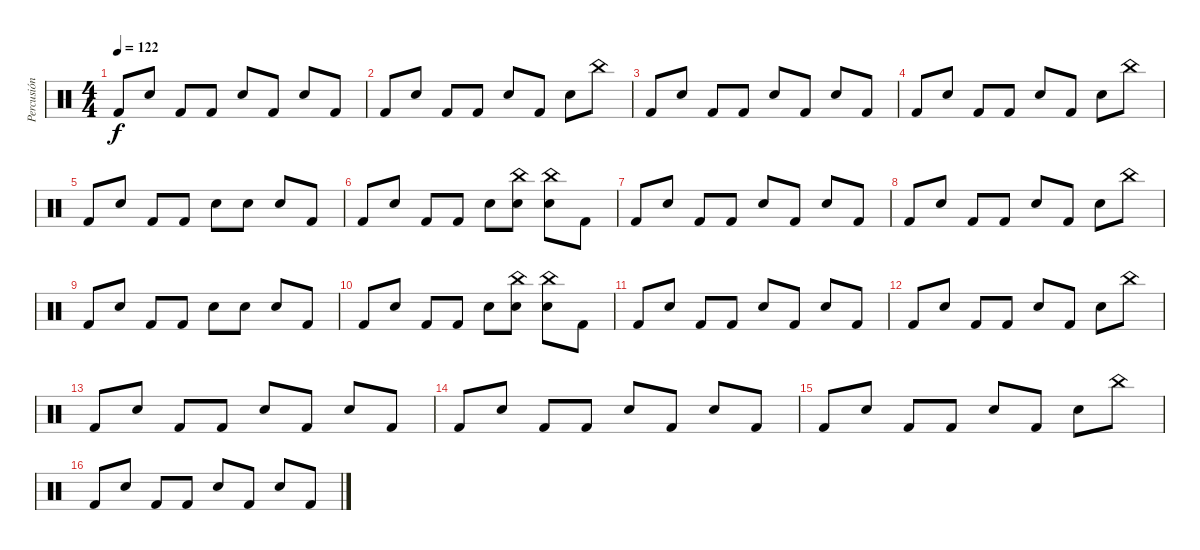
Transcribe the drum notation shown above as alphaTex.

\track ("Percusión" "Percusión") {instrument percussion}
\staff {score}
\articulation defaults
\ts (4 4)
\tempo 122
\clef neutral
\ks c "Kick (hit) 2".8{dy f} "Electric Snare (hit)".8 "Kick (hit) 2".8 "Kick (hit) 2".8 "Electric Snare (hit)".8 "Kick (hit) 2".8 "Electric Snare (hit)".8 "Kick (hit) 2".8
|
"Kick (hit) 2".8 "Electric Snare (hit)".8 "Kick (hit) 2".8 "Kick (hit) 2".8 "Electric Snare (hit)".8 "Kick (hit) 2".8 "Electric Snare (hit)".8 "China (hit)".8 |
"Kick (hit) 2".8 "Electric Snare (hit)".8 "Kick (hit) 2".8 "Kick (hit) 2".8 "Electric Snare (hit)".8 "Kick (hit) 2".8 "Electric Snare (hit)".8 "Kick (hit) 2".8 |
"Kick (hit) 2".8 "Electric Snare (hit)".8 "Kick (hit) 2".8 "Kick (hit) 2".8 "Electric Snare (hit)".8 "Kick (hit) 2".8 "Electric Snare (hit)".8 "China (hit)".8 |
"Kick (hit) 2".8 "Electric Snare (hit)".8 "Kick (hit) 2".8 "Kick (hit) 2".8 "Electric Snare (hit)".8 "Electric Snare (hit)".8 "Electric Snare (hit)".8 "Kick (hit) 2".8 |
"Kick (hit) 2".8 "Electric Snare (hit)".8 "Kick (hit) 2".8 "Kick (hit) 2".8 "Electric Snare (hit)".8 ("China (hit)" "Electric Snare (hit)").8 ("China (hit)" "Electric Snare (hit)").8 "Kick (hit) 2".8 |
"Kick (hit) 2".8 "Electric Snare (hit)".8 "Kick (hit) 2".8 "Kick (hit) 2".8 "Electric Snare (hit)".8 "Kick (hit) 2".8 "Electric Snare (hit)".8 "Kick (hit) 2".8 |
"Kick (hit) 2".8 "Electric Snare (hit)".8 "Kick (hit) 2".8 "Kick (hit) 2".8 "Electric Snare (hit)".8 "Kick (hit) 2".8 "Electric Snare (hit)".8 "China (hit)".8 |
"Kick (hit) 2".8 "Electric Snare (hit)".8 "Kick (hit) 2".8 "Kick (hit) 2".8 "Electric Snare (hit)".8 "Electric Snare (hit)".8 "Electric Snare (hit)".8 "Kick (hit) 2".8 |
"Kick (hit) 2".8 "Electric Snare (hit)".8 "Kick (hit) 2".8 "Kick (hit) 2".8 "Electric Snare (hit)".8 ("China (hit)" "Electric Snare (hit)").8 ("China (hit)" "Electric Snare (hit)").8 "Kick (hit) 2".8 |
"Kick (hit) 2".8 "Electric Snare (hit)".8 "Kick (hit) 2".8 "Kick (hit) 2".8 "Electric Snare (hit)".8 "Kick (hit) 2".8 "Electric Snare (hit)".8 "Kick (hit) 2".8 |
"Kick (hit) 2".8 "Electric Snare (hit)".8 "Kick (hit) 2".8 "Kick (hit) 2".8 "Electric Snare (hit)".8 "Kick (hit) 2".8 "Electric Snare (hit)".8 "China (hit)".8 |
"Kick (hit) 2".8 "Electric Snare (hit)".8 "Kick (hit) 2".8 "Kick (hit) 2".8 "Electric Snare (hit)".8 "Kick (hit) 2".8 "Electric Snare (hit)".8 "Kick (hit) 2".8 |
"Kick (hit) 2".8 "Electric Snare (hit)".8 "Kick (hit) 2".8 "Kick (hit) 2".8 "Electric Snare (hit)".8 "Kick (hit) 2".8 "Electric Snare (hit)".8 "Kick (hit) 2".8 |
"Kick (hit) 2".8 "Electric Snare (hit)".8 "Kick (hit) 2".8 "Kick (hit) 2".8 "Electric Snare (hit)".8 "Kick (hit) 2".8 "Electric Snare (hit)".8 "China (hit)".8 |
"Kick (hit) 2".8 "Electric Snare (hit)".8 "Kick (hit) 2".8 "Kick (hit) 2".8 "Electric Snare (hit)".8 "Kick (hit) 2".8 "Electric Snare (hit)".8 "Kick (hit) 2".8
